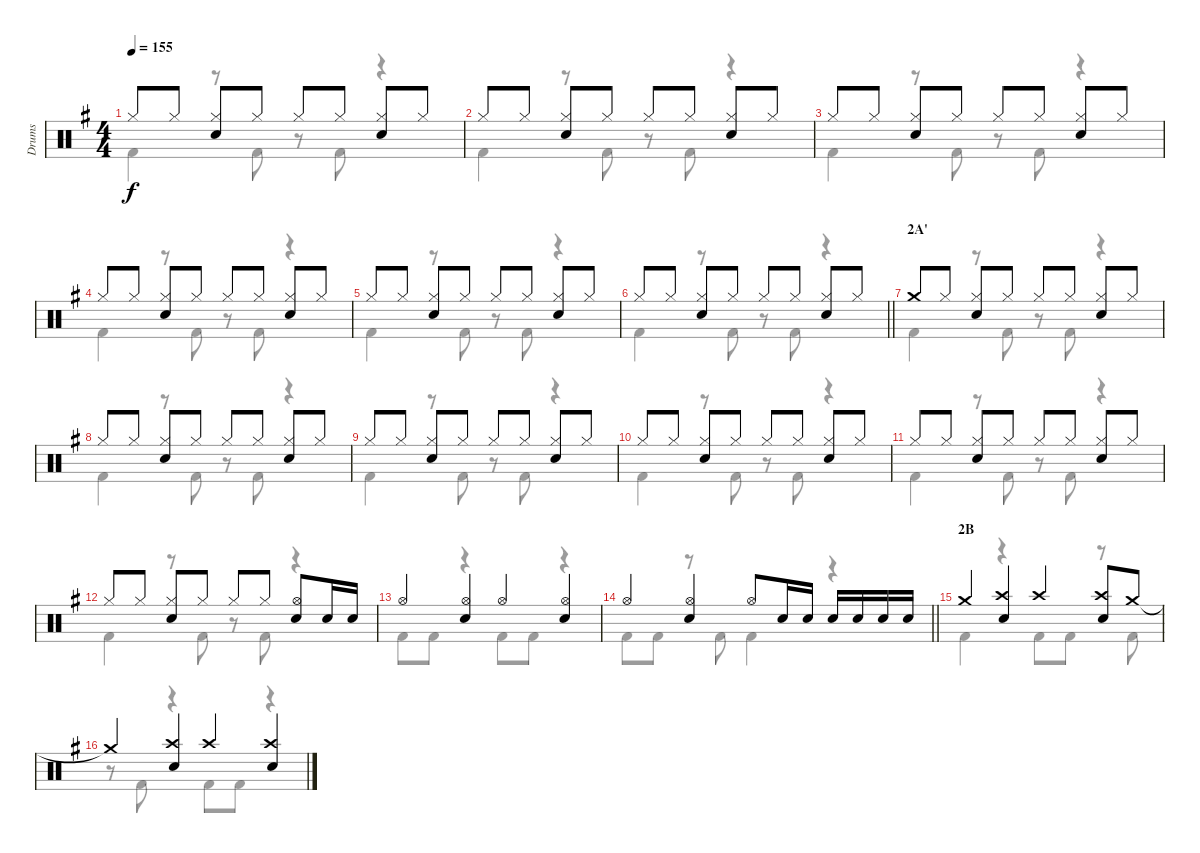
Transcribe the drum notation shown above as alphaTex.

\track ("Drums" "Drums") {instrument percussion}
\staff {score}
\articulation defaults
\voice
\ts (4 4)
\tempo 155
\clef neutral
\ks g "Hi-Hat (closed)".8{dy f} "Hi-Hat (closed)".8
("Hi-Hat (closed)" "Electric Snare (hit)").8 "Hi-Hat (closed)".8 "Hi-Hat (closed)".8 "Hi-Hat (closed)".8 ("Hi-Hat (closed)" "Electric Snare (hit)").8 "Hi-Hat (closed)".8 |
"Hi-Hat (closed)".8 "Hi-Hat (closed)".8 ("Hi-Hat (closed)" "Electric Snare (hit)").8 "Hi-Hat (closed)".8 "Hi-Hat (closed)".8 "Hi-Hat (closed)".8 ("Hi-Hat (closed)" "Electric Snare (hit)").8 "Hi-Hat (closed)".8 |
"Hi-Hat (closed)".8 "Hi-Hat (closed)".8 ("Hi-Hat (closed)" "Electric Snare (hit)").8 "Hi-Hat (closed)".8 "Hi-Hat (closed)".8 "Hi-Hat (closed)".8 ("Hi-Hat (closed)" "Electric Snare (hit)").8 "Hi-Hat (closed)".8 |
"Hi-Hat (closed)".8 "Hi-Hat (closed)".8 ("Hi-Hat (closed)" "Electric Snare (hit)").8 "Hi-Hat (closed)".8 "Hi-Hat (closed)".8 "Hi-Hat (closed)".8 ("Hi-Hat (closed)" "Electric Snare (hit)").8 "Hi-Hat (closed)".8 |
"Hi-Hat (closed)".8 "Hi-Hat (closed)".8 ("Hi-Hat (closed)" "Electric Snare (hit)").8 "Hi-Hat (closed)".8 "Hi-Hat (closed)".8 "Hi-Hat (closed)".8 ("Hi-Hat (closed)" "Electric Snare (hit)").8 "Hi-Hat (closed)".8 |
\barLineRight lightlight "Hi-Hat (closed)".8 "Hi-Hat (closed)".8
("Hi-Hat (closed)" "Electric Snare (hit)").8 "Hi-Hat (closed)".8 "Hi-Hat (closed)".8 "Hi-Hat (closed)".8 ("Hi-Hat (closed)" "Electric Snare (hit)").8 "Hi-Hat (closed)".8 |
\section ("" "2A'")
"Crash medium (hit)".8 "Hi-Hat (closed)".8 ("Hi-Hat (closed)" "Electric Snare (hit)").8 "Hi-Hat (closed)".8 "Hi-Hat (closed)".8 "Hi-Hat (closed)".8 ("Hi-Hat (closed)" "Electric Snare (hit)").8 "Hi-Hat (closed)".8 |
"Hi-Hat (closed)".8 "Hi-Hat (closed)".8 ("Hi-Hat (closed)" "Electric Snare (hit)").8 "Hi-Hat (closed)".8 "Hi-Hat (closed)".8 "Hi-Hat (closed)".8 ("Hi-Hat (closed)" "Electric Snare (hit)").8 "Hi-Hat (closed)".8 |
"Hi-Hat (closed)".8 "Hi-Hat (closed)".8 ("Hi-Hat (closed)" "Electric Snare (hit)").8 "Hi-Hat (closed)".8 "Hi-Hat (closed)".8 "Hi-Hat (closed)".8 ("Hi-Hat (closed)" "Electric Snare (hit)").8 "Hi-Hat (closed)".8 |
"Hi-Hat (closed)".8 "Hi-Hat (closed)".8 ("Hi-Hat (closed)" "Electric Snare (hit)").8 "Hi-Hat (closed)".8 "Hi-Hat (closed)".8 "Hi-Hat (closed)".8 ("Hi-Hat (closed)" "Electric Snare (hit)").8 "Hi-Hat (closed)".8 |
"Hi-Hat (closed)".8 "Hi-Hat (closed)".8 ("Hi-Hat (closed)" "Electric Snare (hit)").8 "Hi-Hat (closed)".8 "Hi-Hat (closed)".8 "Hi-Hat (closed)".8 ("Hi-Hat (closed)" "Electric Snare (hit)").8 "Hi-Hat (closed)".8 |
"Hi-Hat (closed)".8 "Hi-Hat (closed)".8 ("Hi-Hat (closed)" "Electric Snare (hit)").8 "Hi-Hat (closed)".8 "Hi-Hat (closed)".8 "Hi-Hat (closed)".8 ("Hi-Hat (open)" "Electric Snare (hit)").8 "Electric Snare (hit)".16 "Electric Snare (hit)".16 |
"Hi-Hat (open)".4 ("Hi-Hat (open)" "Electric Snare (hit)").4 "Hi-Hat (open)".4 ("Hi-Hat (open)" "Electric Snare (hit)").4 |
\barLineRight lightlight "Hi-Hat (open)".4
("Hi-Hat (open)" "Electric Snare (hit)").4 "Hi-Hat (open)".8 "Electric Snare (hit)".16 "Electric Snare (hit)".16 "Electric Snare (hit)".16 "Electric Snare (hit)".16 "Electric Snare (hit)".16 "Electric Snare (hit)".16 |
\section ("" "2B")
"Crash medium (hit)".4 ("Crash high (hit)" "Electric Snare (hit)").4 "Crash high (hit)".4 ("Crash high (hit)" "Electric Snare (hit)").8 "Crash medium (hit)".8 |
"Crash medium (hit)"{t}.4 ("Crash high (hit)" "Electric Snare (hit)").4 "Crash high (hit)".4 ("Crash high (hit)" "Electric Snare (hit)").4
\voice
\clef neutral
\ottava regular
\simile none
\ks g "Kick (hit) 2".4{dy f}
r.8 "Kick (hit) 2".8 r.8 "Kick (hit) 2".8 r.4 |
"Kick (hit) 2".4 r.8 "Kick (hit) 2".8 r.8 "Kick (hit) 2".8 r.4 |
"Kick (hit) 2".4 r.8 "Kick (hit) 2".8 r.8 "Kick (hit) 2".8 r.4 |
"Kick (hit) 2".4 r.8 "Kick (hit) 2".8 r.8 "Kick (hit) 2".8 r.4 |
"Kick (hit) 2".4 r.8 "Kick (hit) 2".8 r.8 "Kick (hit) 2".8 r.4 |
\barLineRight lightlight "Kick (hit) 2".4
r.8 "Kick (hit) 2".8 r.8 "Kick (hit) 2".8 r.4 |
"Kick (hit) 2".4 r.8 "Kick (hit) 2".8 r.8 "Kick (hit) 2".8 r.4 |
"Kick (hit) 2".4 r.8 "Kick (hit) 2".8 r.8 "Kick (hit) 2".8 r.4 |
"Kick (hit) 2".4 r.8 "Kick (hit) 2".8 r.8 "Kick (hit) 2".8 r.4 |
"Kick (hit) 2".4 r.8 "Kick (hit) 2".8 r.8 "Kick (hit) 2".8 r.4 |
"Kick (hit) 2".4 r.8 "Kick (hit) 2".8 r.8 "Kick (hit) 2".8 r.4 |
"Kick (hit) 2".4 r.8 "Kick (hit) 2".8 r.8 "Kick (hit) 2".8 r.4 |
"Kick (hit) 2".8 "Kick (hit) 2".8 r.4 "Kick (hit) 2".8 "Kick (hit) 2".8 r.4 |
\barLineRight lightlight "Kick (hit) 2".8 "Kick (hit) 2".8
r.8 "Kick (hit) 2".8 "Kick (hit) 2".4 r.4 |
"Kick (hit) 2".4 r.4 "Kick (hit) 2".8 "Kick (hit) 2".8 r.8 "Kick (hit) 2".8 |
r.8 "Kick (hit) 2".8 r.4 "Kick (hit) 2".8 "Kick (hit) 2".8 r.4
